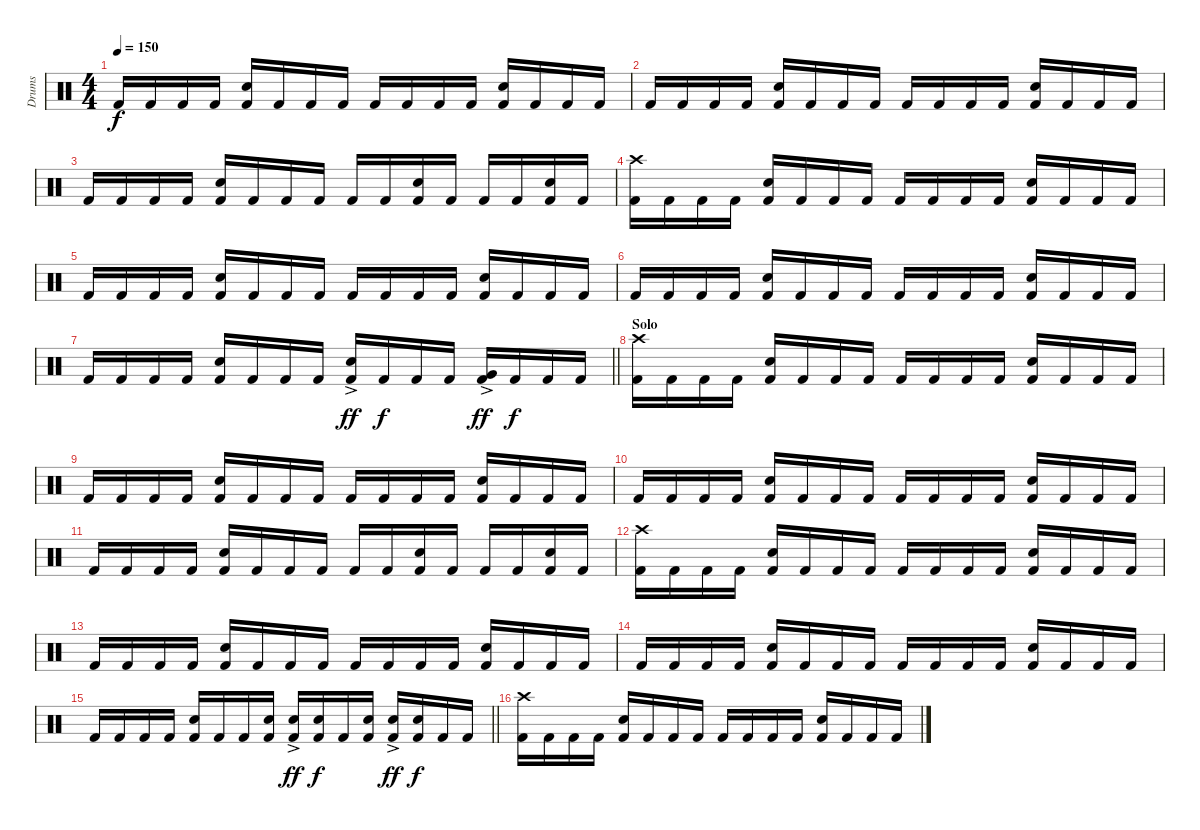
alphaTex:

\track ("Drums" "Drums") {instrument percussion}
\staff {score}
\articulation defaults
\ts (4 4)
\tempo 150
\clef neutral
\ks c "Kick (hit) 2".16{dy f} "Kick (hit) 2".16 "Kick (hit) 2".16 "Kick (hit) 2".16
("Snare (hit) 2" "Kick (hit) 2").16 "Kick (hit) 2".16 "Kick (hit) 2".16 "Kick (hit) 2".16 "Kick (hit) 2".16 "Kick (hit) 2".16 "Kick (hit) 2".16 "Kick (hit) 2".16 ("Snare (hit) 2" "Kick (hit) 2").16 "Kick (hit) 2".16 "Kick (hit) 2".16 "Kick (hit) 2".16 |
"Kick (hit) 2".16 "Kick (hit) 2".16 "Kick (hit) 2".16 "Kick (hit) 2".16 ("Snare (hit) 2" "Kick (hit) 2").16 "Kick (hit) 2".16 "Kick (hit) 2".16 "Kick (hit) 2".16 "Kick (hit) 2".16 "Kick (hit) 2".16 "Kick (hit) 2".16 "Kick (hit) 2".16 ("Snare (hit) 2" "Kick (hit) 2").16 "Kick (hit) 2".16 "Kick (hit) 2".16 "Kick (hit) 2".16 |
"Kick (hit) 2".16 "Kick (hit) 2".16 "Kick (hit) 2".16 "Kick (hit) 2".16 ("Snare (hit) 2" "Kick (hit) 2").16 "Kick (hit) 2".16 "Kick (hit) 2".16 "Kick (hit) 2".16 "Kick (hit) 2".16 "Kick (hit) 2".16 ("Snare (hit) 2" "Kick (hit) 2").16 "Kick (hit) 2".16 "Kick (hit) 2".16 "Kick (hit) 2".16 ("Snare (hit) 2" "Kick (hit) 2").16 "Kick (hit) 2".16 |
("Crash high (hit)" "Kick (hit) 2").16 "Kick (hit) 2".16 "Kick (hit) 2".16 "Kick (hit) 2".16 ("Snare (hit) 2" "Kick (hit) 2").16 "Kick (hit) 2".16 "Kick (hit) 2".16 "Kick (hit) 2".16 "Kick (hit) 2".16 "Kick (hit) 2".16 "Kick (hit) 2".16 "Kick (hit) 2".16 ("Snare (hit) 2" "Kick (hit) 2").16 "Kick (hit) 2".16 "Kick (hit) 2".16 "Kick (hit) 2".16 |
"Kick (hit) 2".16 "Kick (hit) 2".16 "Kick (hit) 2".16 "Kick (hit) 2".16 ("Snare (hit) 2" "Kick (hit) 2").16 "Kick (hit) 2".16 "Kick (hit) 2".16 "Kick (hit) 2".16 "Kick (hit) 2".16 "Kick (hit) 2".16 "Kick (hit) 2".16 "Kick (hit) 2".16 ("Snare (hit) 2" "Kick (hit) 2").16 "Kick (hit) 2".16 "Kick (hit) 2".16 "Kick (hit) 2".16 |
"Kick (hit) 2".16 "Kick (hit) 2".16 "Kick (hit) 2".16 "Kick (hit) 2".16 ("Snare (hit) 2" "Kick (hit) 2").16 "Kick (hit) 2".16 "Kick (hit) 2".16 "Kick (hit) 2".16 "Kick (hit) 2".16 "Kick (hit) 2".16 "Kick (hit) 2".16 "Kick (hit) 2".16 ("Snare (hit) 2" "Kick (hit) 2").16 "Kick (hit) 2".16 "Kick (hit) 2".16 "Kick (hit) 2".16 |
\barLineRight lightlight "Kick (hit) 2".16 "Kick (hit) 2".16 "Kick (hit) 2".16 "Kick (hit) 2".16
("Snare (hit) 2" "Kick (hit) 2").16 "Kick (hit) 2".16 "Kick (hit) 2".16 "Kick (hit) 2".16 ("Snare (hit) 2"{ac} "Kick (hit) 2").16{dy ff} "Kick (hit) 2".16{dy f} "Kick (hit) 2".16 "Kick (hit) 2".16 ("Very Low Tom (hit)"{ac} "Kick (hit) 2").16{dy ff} "Kick (hit) 2".16{dy f} "Kick (hit) 2".16 "Kick (hit) 2".16 |
\section ("" "Solo")
("Crash high (hit)" "Kick (hit) 2").16 "Kick (hit) 2".16 "Kick (hit) 2".16 "Kick (hit) 2".16 ("Snare (hit) 2" "Kick (hit) 2").16 "Kick (hit) 2".16 "Kick (hit) 2".16 "Kick (hit) 2".16 "Kick (hit) 2".16 "Kick (hit) 2".16 "Kick (hit) 2".16 "Kick (hit) 2".16 ("Snare (hit) 2" "Kick (hit) 2").16 "Kick (hit) 2".16 "Kick (hit) 2".16 "Kick (hit) 2".16 |
"Kick (hit) 2".16 "Kick (hit) 2".16 "Kick (hit) 2".16 "Kick (hit) 2".16 ("Snare (hit) 2" "Kick (hit) 2").16 "Kick (hit) 2".16 "Kick (hit) 2".16 "Kick (hit) 2".16 "Kick (hit) 2".16 "Kick (hit) 2".16 "Kick (hit) 2".16 "Kick (hit) 2".16 ("Snare (hit) 2" "Kick (hit) 2").16 "Kick (hit) 2".16 "Kick (hit) 2".16 "Kick (hit) 2".16 |
"Kick (hit) 2".16 "Kick (hit) 2".16 "Kick (hit) 2".16 "Kick (hit) 2".16 ("Snare (hit) 2" "Kick (hit) 2").16 "Kick (hit) 2".16 "Kick (hit) 2".16 "Kick (hit) 2".16 "Kick (hit) 2".16 "Kick (hit) 2".16 "Kick (hit) 2".16 "Kick (hit) 2".16 ("Snare (hit) 2" "Kick (hit) 2").16 "Kick (hit) 2".16 "Kick (hit) 2".16 "Kick (hit) 2".16 |
"Kick (hit) 2".16 "Kick (hit) 2".16 "Kick (hit) 2".16 "Kick (hit) 2".16 ("Snare (hit) 2" "Kick (hit) 2").16 "Kick (hit) 2".16 "Kick (hit) 2".16 "Kick (hit) 2".16 "Kick (hit) 2".16 "Kick (hit) 2".16 ("Snare (hit) 2" "Kick (hit) 2").16 "Kick (hit) 2".16 "Kick (hit) 2".16 "Kick (hit) 2".16 ("Snare (hit) 2" "Kick (hit) 2").16 "Kick (hit) 2".16 |
("Crash high (hit)" "Kick (hit) 2").16 "Kick (hit) 2".16 "Kick (hit) 2".16 "Kick (hit) 2".16 ("Snare (hit) 2" "Kick (hit) 2").16 "Kick (hit) 2".16 "Kick (hit) 2".16 "Kick (hit) 2".16 "Kick (hit) 2".16 "Kick (hit) 2".16 "Kick (hit) 2".16 "Kick (hit) 2".16 ("Snare (hit) 2" "Kick (hit) 2").16 "Kick (hit) 2".16 "Kick (hit) 2".16 "Kick (hit) 2".16 |
"Kick (hit) 2".16 "Kick (hit) 2".16 "Kick (hit) 2".16 "Kick (hit) 2".16 ("Snare (hit) 2" "Kick (hit) 2").16 "Kick (hit) 2".16 "Kick (hit) 2".16 "Kick (hit) 2".16 "Kick (hit) 2".16 "Kick (hit) 2".16 "Kick (hit) 2".16 "Kick (hit) 2".16 ("Snare (hit) 2" "Kick (hit) 2").16 "Kick (hit) 2".16 "Kick (hit) 2".16 "Kick (hit) 2".16 |
"Kick (hit) 2".16 "Kick (hit) 2".16 "Kick (hit) 2".16 "Kick (hit) 2".16 ("Snare (hit) 2" "Kick (hit) 2").16 "Kick (hit) 2".16 "Kick (hit) 2".16 "Kick (hit) 2".16 "Kick (hit) 2".16 "Kick (hit) 2".16 "Kick (hit) 2".16 "Kick (hit) 2".16 ("Snare (hit) 2" "Kick (hit) 2").16 "Kick (hit) 2".16 "Kick (hit) 2".16 "Kick (hit) 2".16 |
\barLineRight lightlight "Kick (hit) 2".16 "Kick (hit) 2".16 "Kick (hit) 2".16 "Kick (hit) 2".16
("Snare (hit) 2" "Kick (hit) 2").16 "Kick (hit) 2".16 "Kick (hit) 2".16 ("Snare (hit) 2" "Kick (hit) 2").16 ("Snare (hit) 2"{ac} "Kick (hit) 2").16{dy ff} ("Snare (hit) 2" "Kick (hit) 2").16{dy f} "Kick (hit) 2".16 ("Snare (hit) 2" "Kick (hit) 2").16 ("Snare (hit) 2"{ac} "Kick (hit) 2").16{dy ff} ("Snare (hit) 2" "Kick (hit) 2").16{dy f} "Kick (hit) 2".16 "Kick (hit) 2".16 |
("Crash high (hit)" "Kick (hit) 2").16 "Kick (hit) 2".16 "Kick (hit) 2".16 "Kick (hit) 2".16 ("Snare (hit) 2" "Kick (hit) 2").16 "Kick (hit) 2".16 "Kick (hit) 2".16 "Kick (hit) 2".16 "Kick (hit) 2".16 "Kick (hit) 2".16 "Kick (hit) 2".16 "Kick (hit) 2".16 ("Snare (hit) 2" "Kick (hit) 2").16 "Kick (hit) 2".16 "Kick (hit) 2".16 "Kick (hit) 2".16
